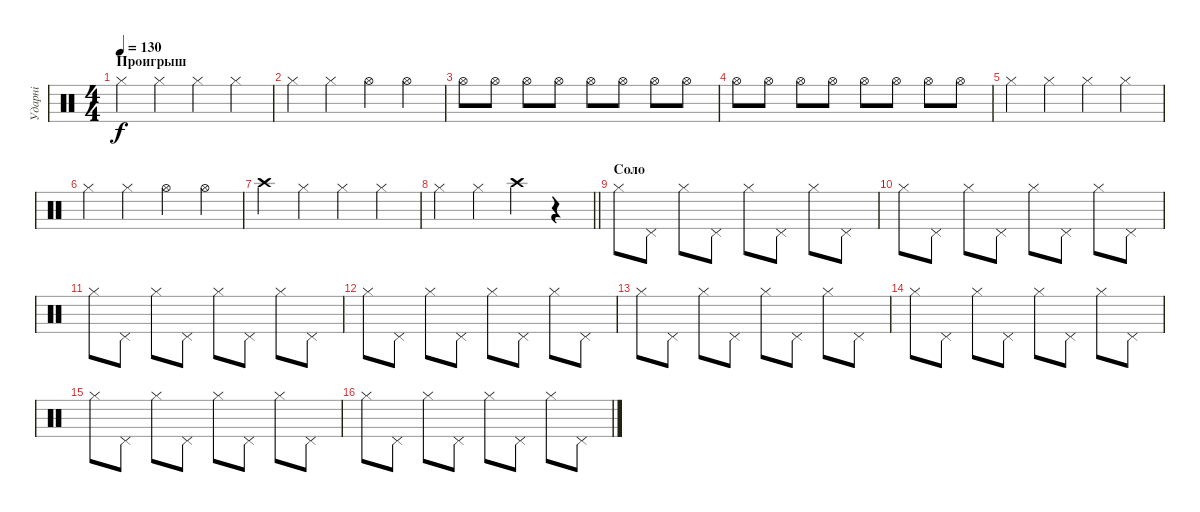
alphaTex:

\track ("Ударні" "Ударні") {instrument percussion}
\staff {score}
\articulation defaults
\ts (4 4)
\section ("" "Проигрыш")
\tempo 130
\clef neutral
\ks c "Hi-Hat (closed)".4{dy f} "Hi-Hat (closed)".4 "Hi-Hat (closed)".4 "Hi-Hat (closed)".4
|
"Hi-Hat (closed)".4 "Hi-Hat (closed)".4 "Hi-Hat (open)".4 "Hi-Hat (open)".4 |
"Hi-Hat (open)".8 "Hi-Hat (open)".8 "Hi-Hat (open)".8 "Hi-Hat (open)".8 "Hi-Hat (open)".8 "Hi-Hat (open)".8 "Hi-Hat (open)".8 "Hi-Hat (open)".8 |
"Hi-Hat (open)".8 "Hi-Hat (open)".8 "Hi-Hat (open)".8 "Hi-Hat (open)".8 "Hi-Hat (open)".8 "Hi-Hat (open)".8 "Hi-Hat (open)".8 "Hi-Hat (open)".8 |
"Hi-Hat (closed)".4 "Hi-Hat (closed)".4 "Hi-Hat (closed)".4 "Hi-Hat (closed)".4 |
"Hi-Hat (closed)".4 "Hi-Hat (closed)".4 "Hi-Hat (open)".4 "Hi-Hat (open)".4 |
"Crash high (hit)".4 "Hi-Hat (closed)".4 "Hi-Hat (closed)".4 "Hi-Hat (closed)".4 |
\barLineRight lightlight "Hi-Hat (closed)".4 "Hi-Hat (closed)".4 "Crash high (hit)".4
r.4 |
\section ("" "Соло")
"Hi-Hat (closed)".8 "Pedal Hi-Hat (hit)".8 "Hi-Hat (closed)".8 "Pedal Hi-Hat (hit)".8 "Hi-Hat (closed)".8 "Pedal Hi-Hat (hit)".8 "Hi-Hat (closed)".8 "Pedal Hi-Hat (hit)".8 |
"Hi-Hat (closed)".8 "Pedal Hi-Hat (hit)".8 "Hi-Hat (closed)".8 "Pedal Hi-Hat (hit)".8 "Hi-Hat (closed)".8 "Pedal Hi-Hat (hit)".8 "Hi-Hat (closed)".8 "Pedal Hi-Hat (hit)".8 |
"Hi-Hat (closed)".8 "Pedal Hi-Hat (hit)".8 "Hi-Hat (closed)".8 "Pedal Hi-Hat (hit)".8 "Hi-Hat (closed)".8 "Pedal Hi-Hat (hit)".8 "Hi-Hat (closed)".8 "Pedal Hi-Hat (hit)".8 |
"Hi-Hat (closed)".8 "Pedal Hi-Hat (hit)".8 "Hi-Hat (closed)".8 "Pedal Hi-Hat (hit)".8 "Hi-Hat (closed)".8 "Pedal Hi-Hat (hit)".8 "Hi-Hat (closed)".8 "Pedal Hi-Hat (hit)".8 |
"Hi-Hat (closed)".8 "Pedal Hi-Hat (hit)".8 "Hi-Hat (closed)".8 "Pedal Hi-Hat (hit)".8 "Hi-Hat (closed)".8 "Pedal Hi-Hat (hit)".8 "Hi-Hat (closed)".8 "Pedal Hi-Hat (hit)".8 |
"Hi-Hat (closed)".8 "Pedal Hi-Hat (hit)".8 "Hi-Hat (closed)".8 "Pedal Hi-Hat (hit)".8 "Hi-Hat (closed)".8 "Pedal Hi-Hat (hit)".8 "Hi-Hat (closed)".8 "Pedal Hi-Hat (hit)".8 |
"Hi-Hat (closed)".8 "Pedal Hi-Hat (hit)".8 "Hi-Hat (closed)".8 "Pedal Hi-Hat (hit)".8 "Hi-Hat (closed)".8 "Pedal Hi-Hat (hit)".8 "Hi-Hat (closed)".8 "Pedal Hi-Hat (hit)".8 |
"Hi-Hat (closed)".8 "Pedal Hi-Hat (hit)".8 "Hi-Hat (closed)".8 "Pedal Hi-Hat (hit)".8 "Hi-Hat (closed)".8 "Pedal Hi-Hat (hit)".8 "Hi-Hat (closed)".8 "Pedal Hi-Hat (hit)".8
